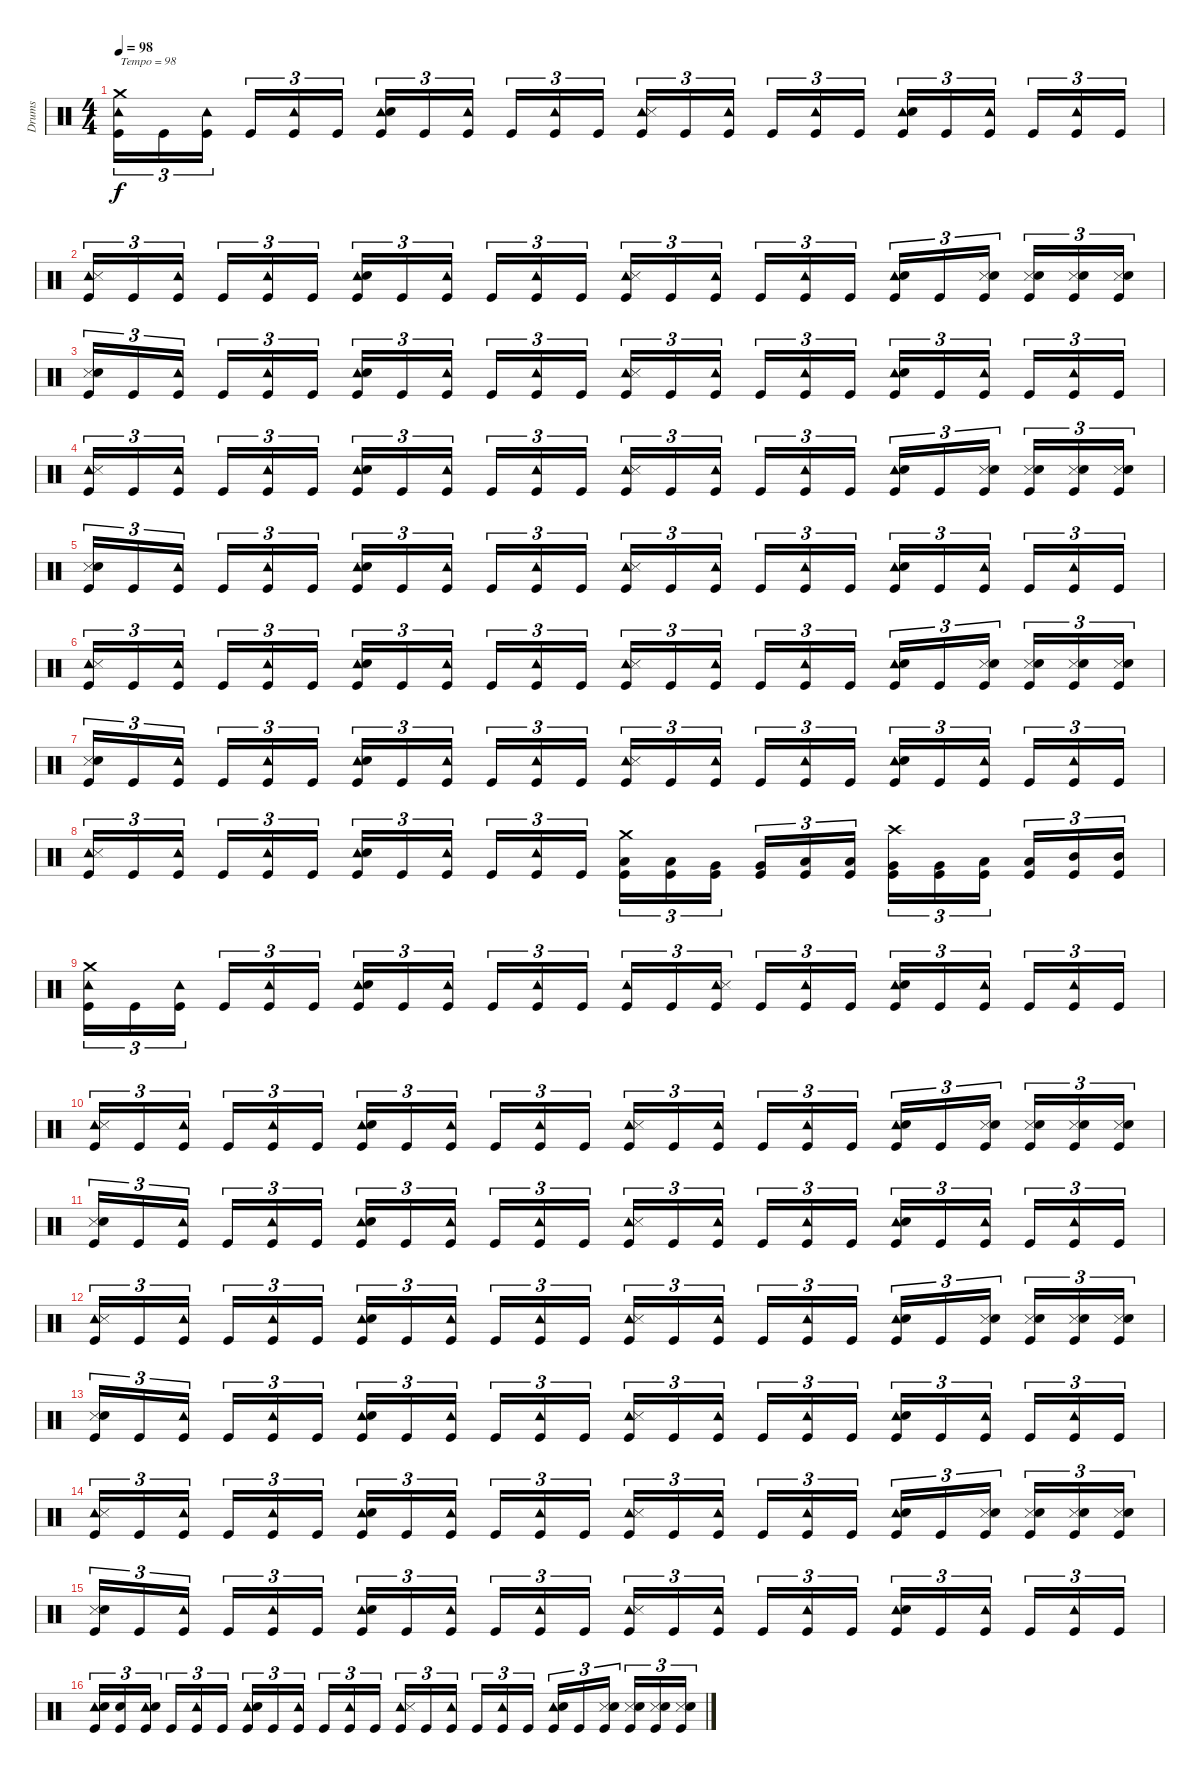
\track ("Drums" "Drums") {instrument percussion}
\staff {score}
\articulation defaults
\ts (4 4)
\tempo 98
\clef neutral
\ks c
("Crash medium (hit)" "Tambourine (hit)" "Kick (hit)").16{tu (3 2) txt "Tempo = 98" dy f} "Kick (hit)".16{tu (3 2)} ("Tambourine (hit)" "Kick (hit)").16{tu (3 2)} "Kick (hit)".16{tu (3 2)} ("Tambourine (hit)" "Kick (hit)").16{tu (3 2)} "Kick (hit)".16{tu (3 2)} ("Tambourine (hit)" "Snare (hit) 2" "Kick (hit)").16{tu (3 2)} "Kick (hit)".16{tu (3 2)} ("Tambourine (hit)" "Kick (hit)").16{tu (3 2)} "Kick (hit)".16{tu (3 2)} ("Tambourine (hit)" "Kick (hit)").16{tu (3 2)} "Kick (hit)".16{tu (3 2)} ("Tambourine (hit)" "Snare (side stick) 3" "Kick (hit)").16{tu (3 2)} "Kick (hit)".16{tu (3 2)} ("Tambourine (hit)" "Kick (hit)").16{tu (3 2)} "Kick (hit)".16{tu (3 2)} ("Tambourine (hit)" "Kick (hit)").16{tu (3 2)} "Kick (hit)".16{tu (3 2)} ("Tambourine (hit)" "Snare (hit) 2" "Kick (hit)").16{tu (3 2)} "Kick (hit)".16{tu (3 2)} ("Tambourine (hit)" "Kick (hit)").16{tu (3 2)} "Kick (hit)".16{tu (3 2)} ("Tambourine (hit)" "Kick (hit)").16{tu (3 2)} "Kick (hit)".16{tu (3 2)} |
("Tambourine (hit)" "Snare (side stick) 3" "Kick (hit)").16{tu (3 2)} "Kick (hit)".16{tu (3 2)} ("Tambourine (hit)" "Kick (hit)").16{tu (3 2)} "Kick (hit)".16{tu (3 2)} ("Tambourine (hit)" "Kick (hit)").16{tu (3 2)} "Kick (hit)".16{tu (3 2)} ("Tambourine (hit)" "Snare (hit) 2" "Kick (hit)").16{tu (3 2)} "Kick (hit)".16{tu (3 2)} ("Tambourine (hit)" "Kick (hit)").16{tu (3 2)} "Kick (hit)".16{tu (3 2)} ("Tambourine (hit)" "Kick (hit)").16{tu (3 2)} "Kick (hit)".16{tu (3 2)} ("Tambourine (hit)" "Snare (side stick) 3" "Kick (hit)").16{tu (3 2)} "Kick (hit)".16{tu (3 2)} ("Tambourine (hit)" "Kick (hit)").16{tu (3 2)} "Kick (hit)".16{tu (3 2)} ("Tambourine (hit)" "Kick (hit)").16{tu (3 2)} "Kick (hit)".16{tu (3 2)} ("Tambourine (hit)" "Snare (hit) 2" "Kick (hit)").16{tu (3 2)} "Kick (hit)".16{tu (3 2)} ("Snare (side stick) 3" "Snare (hit) 2" "Kick (hit)").16{tu (3 2)} ("Snare (side stick) 3" "Snare (hit) 2" "Kick (hit)").16{tu (3 2)} ("Snare (side stick) 3" "Snare (hit) 2" "Kick (hit)").16{tu (3 2)} ("Snare (side stick) 3" "Snare (hit) 2" "Kick (hit)").16{tu (3 2)} |
("Snare (side stick) 3" "Snare (hit) 2" "Kick (hit)").16{tu (3 2)} "Kick (hit)".16{tu (3 2)} ("Tambourine (hit)" "Kick (hit)").16{tu (3 2)} "Kick (hit)".16{tu (3 2)} ("Tambourine (hit)" "Kick (hit)").16{tu (3 2)} "Kick (hit)".16{tu (3 2)} ("Tambourine (hit)" "Snare (hit) 2" "Kick (hit)").16{tu (3 2)} "Kick (hit)".16{tu (3 2)} ("Tambourine (hit)" "Kick (hit)").16{tu (3 2)} "Kick (hit)".16{tu (3 2)} ("Tambourine (hit)" "Kick (hit)").16{tu (3 2)} "Kick (hit)".16{tu (3 2)} ("Tambourine (hit)" "Snare (side stick) 3" "Kick (hit)").16{tu (3 2)} "Kick (hit)".16{tu (3 2)} ("Tambourine (hit)" "Kick (hit)").16{tu (3 2)} "Kick (hit)".16{tu (3 2)} ("Tambourine (hit)" "Kick (hit)").16{tu (3 2)} "Kick (hit)".16{tu (3 2)} ("Tambourine (hit)" "Snare (hit) 2" "Kick (hit)").16{tu (3 2)} "Kick (hit)".16{tu (3 2)} ("Tambourine (hit)" "Kick (hit)").16{tu (3 2)} "Kick (hit)".16{tu (3 2)} ("Tambourine (hit)" "Kick (hit)").16{tu (3 2)} "Kick (hit)".16{tu (3 2)} |
("Tambourine (hit)" "Snare (side stick) 3" "Kick (hit)").16{tu (3 2)} "Kick (hit)".16{tu (3 2)} ("Tambourine (hit)" "Kick (hit)").16{tu (3 2)} "Kick (hit)".16{tu (3 2)} ("Tambourine (hit)" "Kick (hit)").16{tu (3 2)} "Kick (hit)".16{tu (3 2)} ("Tambourine (hit)" "Snare (hit) 2" "Kick (hit)").16{tu (3 2)} "Kick (hit)".16{tu (3 2)} ("Tambourine (hit)" "Kick (hit)").16{tu (3 2)} "Kick (hit)".16{tu (3 2)} ("Tambourine (hit)" "Kick (hit)").16{tu (3 2)} "Kick (hit)".16{tu (3 2)} ("Tambourine (hit)" "Snare (side stick) 3" "Kick (hit)").16{tu (3 2)} "Kick (hit)".16{tu (3 2)} ("Tambourine (hit)" "Kick (hit)").16{tu (3 2)} "Kick (hit)".16{tu (3 2)} ("Tambourine (hit)" "Kick (hit)").16{tu (3 2)} "Kick (hit)".16{tu (3 2)} ("Tambourine (hit)" "Snare (hit) 2" "Kick (hit)").16{tu (3 2)} "Kick (hit)".16{tu (3 2)} ("Snare (side stick) 3" "Snare (hit) 2" "Kick (hit)").16{tu (3 2)} ("Snare (side stick) 3" "Snare (hit) 2" "Kick (hit)").16{tu (3 2)} ("Snare (side stick) 3" "Snare (hit) 2" "Kick (hit)").16{tu (3 2)} ("Snare (side stick) 3" "Snare (hit) 2" "Kick (hit)").16{tu (3 2)} |
("Snare (side stick) 3" "Snare (hit) 2" "Kick (hit)").16{tu (3 2)} "Kick (hit)".16{tu (3 2)} ("Tambourine (hit)" "Kick (hit)").16{tu (3 2)} "Kick (hit)".16{tu (3 2)} ("Tambourine (hit)" "Kick (hit)").16{tu (3 2)} "Kick (hit)".16{tu (3 2)} ("Tambourine (hit)" "Snare (hit) 2" "Kick (hit)").16{tu (3 2)} "Kick (hit)".16{tu (3 2)} ("Tambourine (hit)" "Kick (hit)").16{tu (3 2)} "Kick (hit)".16{tu (3 2)} ("Tambourine (hit)" "Kick (hit)").16{tu (3 2)} "Kick (hit)".16{tu (3 2)} ("Tambourine (hit)" "Snare (side stick) 3" "Kick (hit)").16{tu (3 2)} "Kick (hit)".16{tu (3 2)} ("Tambourine (hit)" "Kick (hit)").16{tu (3 2)} "Kick (hit)".16{tu (3 2)} ("Tambourine (hit)" "Kick (hit)").16{tu (3 2)} "Kick (hit)".16{tu (3 2)} ("Tambourine (hit)" "Snare (hit) 2" "Kick (hit)").16{tu (3 2)} "Kick (hit)".16{tu (3 2)} ("Tambourine (hit)" "Kick (hit)").16{tu (3 2)} "Kick (hit)".16{tu (3 2)} ("Tambourine (hit)" "Kick (hit)").16{tu (3 2)} "Kick (hit)".16{tu (3 2)} |
("Tambourine (hit)" "Snare (side stick) 3" "Kick (hit)").16{tu (3 2)} "Kick (hit)".16{tu (3 2)} ("Tambourine (hit)" "Kick (hit)").16{tu (3 2)} "Kick (hit)".16{tu (3 2)} ("Tambourine (hit)" "Kick (hit)").16{tu (3 2)} "Kick (hit)".16{tu (3 2)} ("Tambourine (hit)" "Snare (hit) 2" "Kick (hit)").16{tu (3 2)} "Kick (hit)".16{tu (3 2)} ("Tambourine (hit)" "Kick (hit)").16{tu (3 2)} "Kick (hit)".16{tu (3 2)} ("Tambourine (hit)" "Kick (hit)").16{tu (3 2)} "Kick (hit)".16{tu (3 2)} ("Tambourine (hit)" "Snare (side stick) 3" "Kick (hit)").16{tu (3 2)} "Kick (hit)".16{tu (3 2)} ("Tambourine (hit)" "Kick (hit)").16{tu (3 2)} "Kick (hit)".16{tu (3 2)} ("Tambourine (hit)" "Kick (hit)").16{tu (3 2)} "Kick (hit)".16{tu (3 2)} ("Tambourine (hit)" "Snare (hit) 2" "Kick (hit)").16{tu (3 2)} "Kick (hit)".16{tu (3 2)} ("Snare (side stick) 3" "Snare (hit) 2" "Kick (hit)").16{tu (3 2)} ("Snare (side stick) 3" "Snare (hit) 2" "Kick (hit)").16{tu (3 2)} ("Snare (side stick) 3" "Snare (hit) 2" "Kick (hit)").16{tu (3 2)} ("Snare (side stick) 3" "Snare (hit) 2" "Kick (hit)").16{tu (3 2)} |
("Snare (side stick) 3" "Snare (hit) 2" "Kick (hit)").16{tu (3 2)} "Kick (hit)".16{tu (3 2)} ("Tambourine (hit)" "Kick (hit)").16{tu (3 2)} "Kick (hit)".16{tu (3 2)} ("Tambourine (hit)" "Kick (hit)").16{tu (3 2)} "Kick (hit)".16{tu (3 2)} ("Tambourine (hit)" "Snare (hit) 2" "Kick (hit)").16{tu (3 2)} "Kick (hit)".16{tu (3 2)} ("Tambourine (hit)" "Kick (hit)").16{tu (3 2)} "Kick (hit)".16{tu (3 2)} ("Tambourine (hit)" "Kick (hit)").16{tu (3 2)} "Kick (hit)".16{tu (3 2)} ("Tambourine (hit)" "Snare (side stick) 3" "Kick (hit)").16{tu (3 2)} "Kick (hit)".16{tu (3 2)} ("Tambourine (hit)" "Kick (hit)").16{tu (3 2)} "Kick (hit)".16{tu (3 2)} ("Tambourine (hit)" "Kick (hit)").16{tu (3 2)} "Kick (hit)".16{tu (3 2)} ("Tambourine (hit)" "Snare (hit) 2" "Kick (hit)").16{tu (3 2)} "Kick (hit)".16{tu (3 2)} ("Tambourine (hit)" "Kick (hit)").16{tu (3 2)} "Kick (hit)".16{tu (3 2)} ("Tambourine (hit)" "Kick (hit)").16{tu (3 2)} "Kick (hit)".16{tu (3 2)} |
("Tambourine (hit)" "Snare (side stick) 3" "Kick (hit)").16{tu (3 2)} "Kick (hit)".16{tu (3 2)} ("Tambourine (hit)" "Kick (hit)").16{tu (3 2)} "Kick (hit)".16{tu (3 2)} ("Tambourine (hit)" "Kick (hit)").16{tu (3 2)} "Kick (hit)".16{tu (3 2)} ("Tambourine (hit)" "Snare (hit) 2" "Kick (hit)").16{tu (3 2)} "Kick (hit)".16{tu (3 2)} ("Tambourine (hit)" "Kick (hit)").16{tu (3 2)} "Kick (hit)".16{tu (3 2)} ("Tambourine (hit)" "Kick (hit)").16{tu (3 2)} "Kick (hit)".16{tu (3 2)} ("Crash medium (hit)" "Low Floor Tom (hit)" "Kick (hit)").16{tu (3 2)} ("Low Floor Tom (hit)" "Kick (hit)").16{tu (3 2)} ("Very Low Tom (hit)" "Kick (hit)").16{tu (3 2)} ("Very Low Tom (hit)" "Kick (hit)").16{tu (3 2)} ("Low Tom (hit)" "Kick (hit)").16{tu (3 2)} ("Low Tom (hit)" "Kick (hit)").16{tu (3 2)} ("Crash high (hit)" "Very Low Tom (hit)" "Kick (hit)").16{tu (3 2)} ("Very Low Tom (hit)" "Kick (hit)").16{tu (3 2)} ("Low Tom (hit)" "Kick (hit)").16{tu (3 2)} ("Low Tom (hit)" "Kick (hit)").16{tu (3 2)} ("Mid Tom (hit)" "Kick (hit)").16{tu (3 2)} ("Mid Tom (hit)" "Kick (hit)").16{tu (3 2)} |
("Crash medium (hit)" "Tambourine (hit)" "Kick (hit)").16{tu (3 2)} "Kick (hit)".16{tu (3 2)} ("Tambourine (hit)" "Kick (hit)").16{tu (3 2)} "Kick (hit)".16{tu (3 2)} ("Tambourine (hit)" "Kick (hit)").16{tu (3 2)} "Kick (hit)".16{tu (3 2)} ("Tambourine (hit)" "Snare (hit) 2" "Kick (hit)").16{tu (3 2)} "Kick (hit)".16{tu (3 2)} ("Tambourine (hit)" "Kick (hit)").16{tu (3 2)} "Kick (hit)".16{tu (3 2)} ("Tambourine (hit)" "Kick (hit)").16{tu (3 2)} "Kick (hit)".16{tu (3 2)} ("Tambourine (hit)" "Kick (hit)").16{tu (3 2)} "Kick (hit)".16{tu (3 2)} ("Tambourine (hit)" "Snare (side stick) 3" "Kick (hit)").16{tu (3 2)} "Kick (hit)".16{tu (3 2)} ("Tambourine (hit)" "Kick (hit)").16{tu (3 2)} "Kick (hit)".16{tu (3 2)} ("Tambourine (hit)" "Snare (hit) 2" "Kick (hit)").16{tu (3 2)} "Kick (hit)".16{tu (3 2)} ("Tambourine (hit)" "Kick (hit)").16{tu (3 2)} "Kick (hit)".16{tu (3 2)} ("Tambourine (hit)" "Kick (hit)").16{tu (3 2)} "Kick (hit)".16{tu (3 2)} |
("Tambourine (hit)" "Snare (side stick) 3" "Kick (hit)").16{tu (3 2)} "Kick (hit)".16{tu (3 2)} ("Tambourine (hit)" "Kick (hit)").16{tu (3 2)} "Kick (hit)".16{tu (3 2)} ("Tambourine (hit)" "Kick (hit)").16{tu (3 2)} "Kick (hit)".16{tu (3 2)} ("Tambourine (hit)" "Snare (hit) 2" "Kick (hit)").16{tu (3 2)} "Kick (hit)".16{tu (3 2)} ("Tambourine (hit)" "Kick (hit)").16{tu (3 2)} "Kick (hit)".16{tu (3 2)} ("Tambourine (hit)" "Kick (hit)").16{tu (3 2)} "Kick (hit)".16{tu (3 2)} ("Tambourine (hit)" "Snare (side stick) 3" "Kick (hit)").16{tu (3 2)} "Kick (hit)".16{tu (3 2)} ("Tambourine (hit)" "Kick (hit)").16{tu (3 2)} "Kick (hit)".16{tu (3 2)} ("Tambourine (hit)" "Kick (hit)").16{tu (3 2)} "Kick (hit)".16{tu (3 2)} ("Tambourine (hit)" "Snare (hit) 2" "Kick (hit)").16{tu (3 2)} "Kick (hit)".16{tu (3 2)} ("Snare (side stick) 3" "Snare (hit) 2" "Kick (hit)").16{tu (3 2)} ("Snare (side stick) 3" "Snare (hit) 2" "Kick (hit)").16{tu (3 2)} ("Snare (side stick) 3" "Snare (hit) 2" "Kick (hit)").16{tu (3 2)} ("Snare (side stick) 3" "Snare (hit) 2" "Kick (hit)").16{tu (3 2)} |
("Snare (side stick) 3" "Snare (hit) 2" "Kick (hit)").16{tu (3 2)} "Kick (hit)".16{tu (3 2)} ("Tambourine (hit)" "Kick (hit)").16{tu (3 2)} "Kick (hit)".16{tu (3 2)} ("Tambourine (hit)" "Kick (hit)").16{tu (3 2)} "Kick (hit)".16{tu (3 2)} ("Tambourine (hit)" "Snare (hit) 2" "Kick (hit)").16{tu (3 2)} "Kick (hit)".16{tu (3 2)} ("Tambourine (hit)" "Kick (hit)").16{tu (3 2)} "Kick (hit)".16{tu (3 2)} ("Tambourine (hit)" "Kick (hit)").16{tu (3 2)} "Kick (hit)".16{tu (3 2)} ("Tambourine (hit)" "Snare (side stick) 3" "Kick (hit)").16{tu (3 2)} "Kick (hit)".16{tu (3 2)} ("Tambourine (hit)" "Kick (hit)").16{tu (3 2)} "Kick (hit)".16{tu (3 2)} ("Tambourine (hit)" "Kick (hit)").16{tu (3 2)} "Kick (hit)".16{tu (3 2)} ("Tambourine (hit)" "Snare (hit) 2" "Kick (hit)").16{tu (3 2)} "Kick (hit)".16{tu (3 2)} ("Tambourine (hit)" "Kick (hit)").16{tu (3 2)} "Kick (hit)".16{tu (3 2)} ("Tambourine (hit)" "Kick (hit)").16{tu (3 2)} "Kick (hit)".16{tu (3 2)} |
("Tambourine (hit)" "Snare (side stick) 3" "Kick (hit)").16{tu (3 2)} "Kick (hit)".16{tu (3 2)} ("Tambourine (hit)" "Kick (hit)").16{tu (3 2)} "Kick (hit)".16{tu (3 2)} ("Tambourine (hit)" "Kick (hit)").16{tu (3 2)} "Kick (hit)".16{tu (3 2)} ("Tambourine (hit)" "Snare (hit) 2" "Kick (hit)").16{tu (3 2)} "Kick (hit)".16{tu (3 2)} ("Tambourine (hit)" "Kick (hit)").16{tu (3 2)} "Kick (hit)".16{tu (3 2)} ("Tambourine (hit)" "Kick (hit)").16{tu (3 2)} "Kick (hit)".16{tu (3 2)} ("Tambourine (hit)" "Snare (side stick) 3" "Kick (hit)").16{tu (3 2)} "Kick (hit)".16{tu (3 2)} ("Tambourine (hit)" "Kick (hit)").16{tu (3 2)} "Kick (hit)".16{tu (3 2)} ("Tambourine (hit)" "Kick (hit)").16{tu (3 2)} "Kick (hit)".16{tu (3 2)} ("Tambourine (hit)" "Snare (hit) 2" "Kick (hit)").16{tu (3 2)} "Kick (hit)".16{tu (3 2)} ("Snare (side stick) 3" "Snare (hit) 2" "Kick (hit)").16{tu (3 2)} ("Snare (side stick) 3" "Snare (hit) 2" "Kick (hit)").16{tu (3 2)} ("Snare (side stick) 3" "Snare (hit) 2" "Kick (hit)").16{tu (3 2)} ("Snare (side stick) 3" "Snare (hit) 2" "Kick (hit)").16{tu (3 2)} |
("Snare (side stick) 3" "Snare (hit) 2" "Kick (hit)").16{tu (3 2)} "Kick (hit)".16{tu (3 2)} ("Tambourine (hit)" "Kick (hit)").16{tu (3 2)} "Kick (hit)".16{tu (3 2)} ("Tambourine (hit)" "Kick (hit)").16{tu (3 2)} "Kick (hit)".16{tu (3 2)} ("Tambourine (hit)" "Snare (hit) 2" "Kick (hit)").16{tu (3 2)} "Kick (hit)".16{tu (3 2)} ("Tambourine (hit)" "Kick (hit)").16{tu (3 2)} "Kick (hit)".16{tu (3 2)} ("Tambourine (hit)" "Kick (hit)").16{tu (3 2)} "Kick (hit)".16{tu (3 2)} ("Tambourine (hit)" "Snare (side stick) 3" "Kick (hit)").16{tu (3 2)} "Kick (hit)".16{tu (3 2)} ("Tambourine (hit)" "Kick (hit)").16{tu (3 2)} "Kick (hit)".16{tu (3 2)} ("Tambourine (hit)" "Kick (hit)").16{tu (3 2)} "Kick (hit)".16{tu (3 2)} ("Tambourine (hit)" "Snare (hit) 2" "Kick (hit)").16{tu (3 2)} "Kick (hit)".16{tu (3 2)} ("Tambourine (hit)" "Kick (hit)").16{tu (3 2)} "Kick (hit)".16{tu (3 2)} ("Tambourine (hit)" "Kick (hit)").16{tu (3 2)} "Kick (hit)".16{tu (3 2)} |
("Tambourine (hit)" "Snare (side stick) 3" "Kick (hit)").16{tu (3 2)} "Kick (hit)".16{tu (3 2)} ("Tambourine (hit)" "Kick (hit)").16{tu (3 2)} "Kick (hit)".16{tu (3 2)} ("Tambourine (hit)" "Kick (hit)").16{tu (3 2)} "Kick (hit)".16{tu (3 2)} ("Tambourine (hit)" "Snare (hit) 2" "Kick (hit)").16{tu (3 2)} "Kick (hit)".16{tu (3 2)} ("Tambourine (hit)" "Kick (hit)").16{tu (3 2)} "Kick (hit)".16{tu (3 2)} ("Tambourine (hit)" "Kick (hit)").16{tu (3 2)} "Kick (hit)".16{tu (3 2)} ("Tambourine (hit)" "Snare (side stick) 3" "Kick (hit)").16{tu (3 2)} "Kick (hit)".16{tu (3 2)} ("Tambourine (hit)" "Kick (hit)").16{tu (3 2)} "Kick (hit)".16{tu (3 2)} ("Tambourine (hit)" "Kick (hit)").16{tu (3 2)} "Kick (hit)".16{tu (3 2)} ("Tambourine (hit)" "Snare (hit) 2" "Kick (hit)").16{tu (3 2)} "Kick (hit)".16{tu (3 2)} ("Snare (side stick) 3" "Snare (hit) 2" "Kick (hit)").16{tu (3 2)} ("Snare (side stick) 3" "Snare (hit) 2" "Kick (hit)").16{tu (3 2)} ("Snare (side stick) 3" "Snare (hit) 2" "Kick (hit)").16{tu (3 2)} ("Snare (side stick) 3" "Snare (hit) 2" "Kick (hit)").16{tu (3 2)} |
("Snare (side stick) 3" "Snare (hit) 2" "Kick (hit)").16{tu (3 2)} "Kick (hit)".16{tu (3 2)} ("Tambourine (hit)" "Kick (hit)").16{tu (3 2)} "Kick (hit)".16{tu (3 2)} ("Tambourine (hit)" "Kick (hit)").16{tu (3 2)} "Kick (hit)".16{tu (3 2)} ("Tambourine (hit)" "Snare (hit) 2" "Kick (hit)").16{tu (3 2)} "Kick (hit)".16{tu (3 2)} ("Tambourine (hit)" "Kick (hit)").16{tu (3 2)} "Kick (hit)".16{tu (3 2)} ("Tambourine (hit)" "Kick (hit)").16{tu (3 2)} "Kick (hit)".16{tu (3 2)} ("Tambourine (hit)" "Snare (side stick) 3" "Kick (hit)").16{tu (3 2)} "Kick (hit)".16{tu (3 2)} ("Tambourine (hit)" "Kick (hit)").16{tu (3 2)} "Kick (hit)".16{tu (3 2)} ("Tambourine (hit)" "Kick (hit)").16{tu (3 2)} "Kick (hit)".16{tu (3 2)} ("Tambourine (hit)" "Snare (hit) 2" "Kick (hit)").16{tu (3 2)} "Kick (hit)".16{tu (3 2)} ("Tambourine (hit)" "Kick (hit)").16{tu (3 2)} "Kick (hit)".16{tu (3 2)} ("Tambourine (hit)" "Kick (hit)").16{tu (3 2)} "Kick (hit)".16{tu (3 2)} |
("Tambourine (hit)" "Snare (hit) 2" "Kick (hit)").16{tu (3 2)} ("Snare (hit) 2" "Kick (hit)").16{tu (3 2)} ("Tambourine (hit)" "Snare (hit) 2" "Kick (hit)").16{tu (3 2)} "Kick (hit)".16{tu (3 2)} ("Tambourine (hit)" "Kick (hit)").16{tu (3 2)} "Kick (hit)".16{tu (3 2)} ("Tambourine (hit)" "Snare (hit) 2" "Kick (hit)").16{tu (3 2)} "Kick (hit)".16{tu (3 2)} ("Tambourine (hit)" "Kick (hit)").16{tu (3 2)} "Kick (hit)".16{tu (3 2)} ("Tambourine (hit)" "Kick (hit)").16{tu (3 2)} "Kick (hit)".16{tu (3 2)} ("Tambourine (hit)" "Snare (side stick) 3" "Kick (hit)").16{tu (3 2)} "Kick (hit)".16{tu (3 2)} ("Tambourine (hit)" "Kick (hit)").16{tu (3 2)} "Kick (hit)".16{tu (3 2)} ("Tambourine (hit)" "Kick (hit)").16{tu (3 2)} "Kick (hit)".16{tu (3 2)} ("Tambourine (hit)" "Snare (hit) 2" "Kick (hit)").16{tu (3 2)} "Kick (hit)".16{tu (3 2)} ("Snare (side stick) 3" "Snare (hit) 2" "Kick (hit)").16{tu (3 2)} ("Snare (side stick) 3" "Snare (hit) 2" "Kick (hit)").16{tu (3 2)} ("Snare (side stick) 3" "Snare (hit) 2" "Kick (hit)").16{tu (3 2)} ("Snare (side stick) 3" "Snare (hit) 2" "Kick (hit)").16{tu (3 2)}
